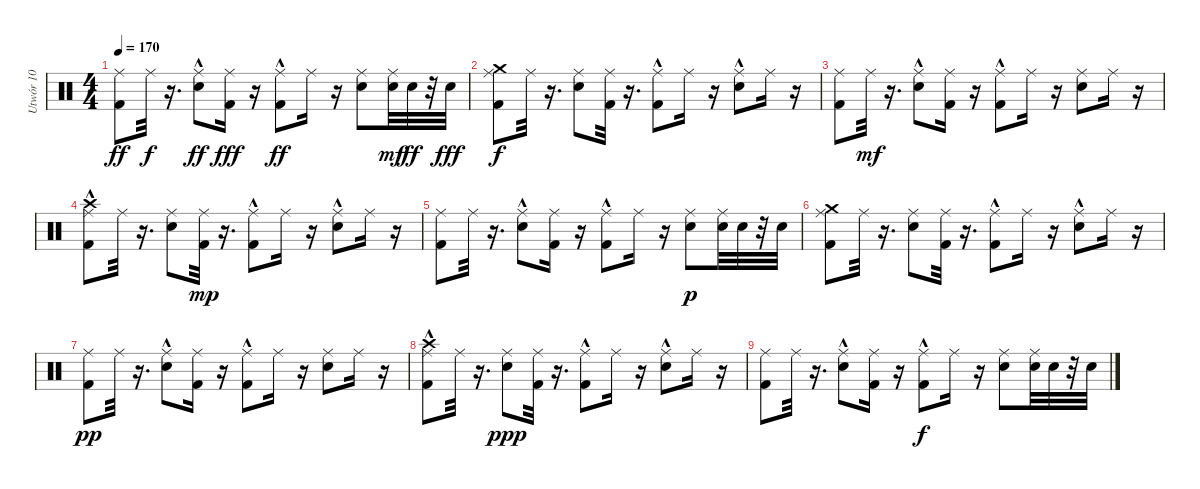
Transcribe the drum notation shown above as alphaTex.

\track ("Utwór 10" "Utwór 10") {instrument percussion}
\staff {score}
\articulation defaults
\ts (4 4)
\tempo 170
\clef neutral
\ks c
("Kick (hit) 2" "Ride (middle)").8{dy ff} "Ride (middle)".32{dy f} r.16{d} ("Ride (middle)" "Snare (hit) 2"{hac}).8{dy ff} ("Ride (middle)" "Kick (hit) 2").16{dy fff} r.16 ("Kick (hit) 2"{hac} "Ride (middle)").8{dy ff} "Ride (middle)".16 r.16 ("Snare (hit) 2" "Ride (middle)").8 ("Snare (hit) 2" "Ride (middle)").32{dy mf} "Snare (hit) 2".32{dy ff} r.32 "Snare (hit) 2".32{dy fff} |
("Crash medium (hit)" "Kick (hit) 2" "Ride (middle)").8{dy f} "Ride (middle)".32 r.16{d} ("Snare (hit) 2" "Ride (middle)").8 ("Kick (hit) 2" "Ride (middle)").32 r.16{d} ("Ride (middle)" "Kick (hit) 2"{hac}).8 "Ride (middle)".16 r.16 ("Snare (hit) 2"{hac} "Ride (middle)").8 "Ride (middle)".16 r.16 |
("Ride (middle)" "Kick (hit) 2").8 "Ride (middle)".32{dy mf} r.16{d} ("Ride (middle)" "Snare (hit) 2"{hac}).8 ("Kick (hit) 2" "Ride (middle)").16 r.16 ("Ride (middle)" "Kick (hit) 2"{hac}).8 "Ride (middle)".16 r.16 ("Ride (middle)" "Snare (hit) 2").8 "Ride (middle)".16 r.16 |
("Ride (middle)" "Crash high (hit)"{hac} "Kick (hit) 2").8 "Ride (middle)".32 r.16{d} ("Snare (hit) 2" "Ride (middle)").8 ("Kick (hit) 2" "Ride (middle)").32{dy mp} r.16{d} ("Ride (middle)" "Kick (hit) 2"{hac}).8 "Ride (middle)".16 r.16 ("Snare (hit) 2"{hac} "Ride (middle)").8 "Ride (middle)".16 r.16 |
("Ride (middle)" "Kick (hit) 2").8 "Ride (middle)".32 r.16{d} ("Ride (middle)" "Snare (hit) 2"{hac}).8 ("Ride (middle)" "Kick (hit) 2").16 r.16 ("Ride (middle)" "Kick (hit) 2"{hac}).8 "Ride (middle)".16 r.16 ("Ride (middle)" "Snare (hit) 2").8{dy p} ("Snare (hit) 2" "Ride (middle)").32 "Snare (hit) 2".32 r.32 "Snare (hit) 2".32 |
("Kick (hit) 2" "Ride (middle)" "Crash medium (hit)").8 "Ride (middle)".32 r.16{d} ("Ride (middle)" "Snare (hit) 2").8 ("Kick (hit) 2" "Ride (middle)").32 r.16{d} ("Kick (hit) 2"{hac} "Ride (middle)").8 "Ride (middle)".16 r.16 ("Snare (hit) 2"{hac} "Ride (middle)").8 "Ride (middle)".16 r.16 |
("Ride (middle)" "Kick (hit) 2").8{dy pp} "Ride (middle)".32 r.16{d} ("Snare (hit) 2"{hac} "Ride (middle)").8 ("Ride (middle)" "Kick (hit) 2").16 r.16 ("Ride (middle)" "Kick (hit) 2"{hac}).8 "Ride (middle)".16 r.16 ("Snare (hit) 2" "Ride (middle)").8 "Ride (middle)".16 r.16 |
("Ride (middle)" "Crash high (hit)"{hac} "Kick (hit) 2").8 "Ride (middle)".32 r.16{d} ("Ride (middle)" "Snare (hit) 2").8{dy ppp} ("Kick (hit) 2" "Ride (middle)").32 r.16{d} ("Kick (hit) 2"{hac} "Ride (middle)").8 "Ride (middle)".16 r.16 ("Snare (hit) 2"{hac} "Ride (middle)").8 "Ride (middle)".16 r.16 |
("Kick (hit) 2" "Ride (middle)").8 "Ride (middle)".32 r.16{d} ("Snare (hit) 2"{hac} "Ride (middle)").8 ("Ride (middle)" "Kick (hit) 2").16 r.16 ("Kick (hit) 2"{hac} "Ride (middle)").8{dy f} "Ride (middle)".16 r.16 ("Ride (middle)" "Snare (hit) 2").8 ("Ride (middle)" "Snare (hit) 2").32 "Snare (hit) 2".32 r.32 "Snare (hit) 2".32
